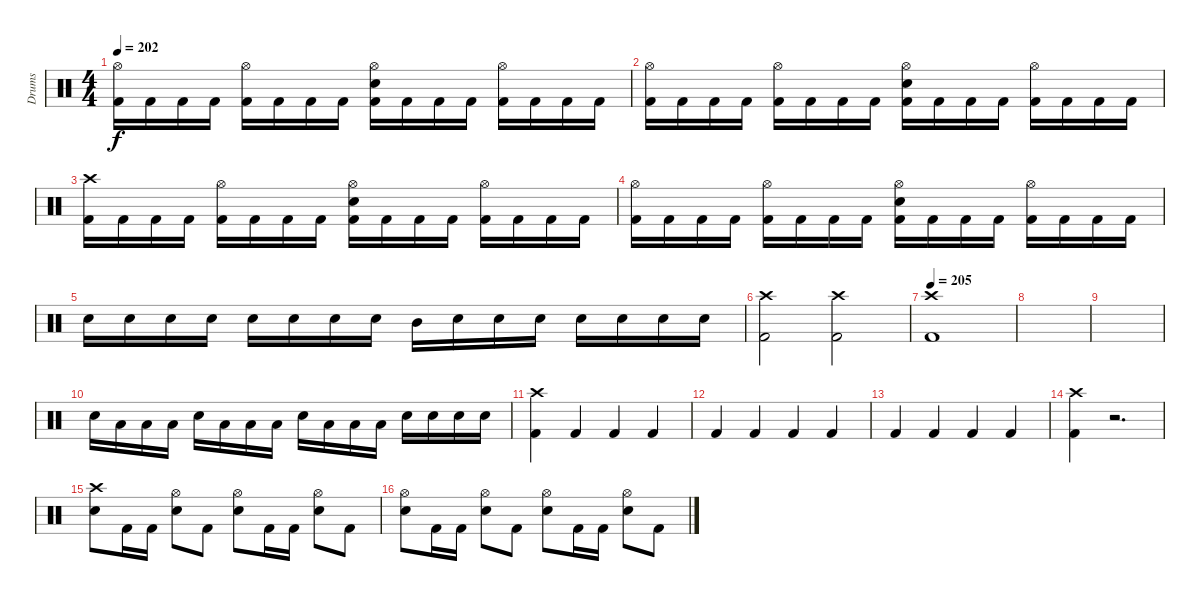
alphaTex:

\track ("Drums" "Drums") {instrument percussion}
\staff {score}
\articulation defaults
\ts (4 4)
\tempo 202
\clef neutral
\ks c
("Hi-Hat (open)" "Kick (hit) 2").16{dy f} "Kick (hit) 2".16 "Kick (hit) 2".16 "Kick (hit) 2".16 ("Hi-Hat (open)" "Kick (hit) 2").16 "Kick (hit) 2".16 "Kick (hit) 2".16 "Kick (hit) 2".16 ("Hi-Hat (open)" "Snare (hit) 2" "Kick (hit) 2").16 "Kick (hit) 2".16 "Kick (hit) 2".16 "Kick (hit) 2".16 ("Hi-Hat (open)" "Kick (hit) 2").16 "Kick (hit) 2".16 "Kick (hit) 2".16 "Kick (hit) 2".16 |
("Hi-Hat (open)" "Kick (hit) 2").16 "Kick (hit) 2".16 "Kick (hit) 2".16 "Kick (hit) 2".16 ("Hi-Hat (open)" "Kick (hit) 2").16 "Kick (hit) 2".16 "Kick (hit) 2".16 "Kick (hit) 2".16 ("Hi-Hat (open)" "Snare (hit) 2" "Kick (hit) 2").16 "Kick (hit) 2".16 "Kick (hit) 2".16 "Kick (hit) 2".16 ("Hi-Hat (open)" "Kick (hit) 2").16 "Kick (hit) 2".16 "Kick (hit) 2".16 "Kick (hit) 2".16 |
("Crash high (hit)" "Kick (hit) 2").16 "Kick (hit) 2".16 "Kick (hit) 2".16 "Kick (hit) 2".16 ("Hi-Hat (open)" "Kick (hit) 2").16 "Kick (hit) 2".16 "Kick (hit) 2".16 "Kick (hit) 2".16 ("Hi-Hat (open)" "Snare (hit) 2" "Kick (hit) 2").16 "Kick (hit) 2".16 "Kick (hit) 2".16 "Kick (hit) 2".16 ("Hi-Hat (open)" "Kick (hit) 2").16 "Kick (hit) 2".16 "Kick (hit) 2".16 "Kick (hit) 2".16 |
("Hi-Hat (open)" "Kick (hit) 2").16 "Kick (hit) 2".16 "Kick (hit) 2".16 "Kick (hit) 2".16 ("Hi-Hat (open)" "Kick (hit) 2").16 "Kick (hit) 2".16 "Kick (hit) 2".16 "Kick (hit) 2".16 ("Hi-Hat (open)" "Snare (hit) 2" "Kick (hit) 2").16 "Kick (hit) 2".16 "Kick (hit) 2".16 "Kick (hit) 2".16 ("Hi-Hat (open)" "Kick (hit) 2").16 "Kick (hit) 2".16 "Kick (hit) 2".16 "Kick (hit) 2".16 |
"Snare (hit) 2".16 "Snare (hit) 2".16 "Snare (hit) 2".16 "Snare (hit) 2".16 "Snare (hit) 2".16 "Snare (hit) 2".16 "Snare (hit) 2".16 "Snare (hit) 2".16 "Mid Tom (hit)".16 "Snare (hit) 2".16 "Snare (hit) 2".16 "Snare (hit) 2".16 "Snare (hit) 2".16 "Snare (hit) 2".16 "Snare (hit) 2".16 "Snare (hit) 2".16 |
("Crash high (hit)"{x} "Kick (hit) 2").2 ("Crash high (hit)"{x} "Kick (hit) 2").2 |
\tempo 205
("Crash high (hit)"{x} "Kick (hit) 2").1 |
|
|
"Snare (hit) 2".16 "Low Tom (hit)".16 "Low Tom (hit)".16 "Low Tom (hit)".16 "Snare (hit) 2".16 "Low Tom (hit)".16 "Low Tom (hit)".16 "Low Tom (hit)".16 "Snare (hit) 2".16 "Low Tom (hit)".16 "Low Tom (hit)".16 "Low Tom (hit)".16 "Snare (hit) 2".16 "Snare (hit) 2".16 "Snare (hit) 2".16 "Snare (hit) 2".16 |
("Crash high (hit)" "Kick (hit) 2").4 "Kick (hit) 2".4 "Kick (hit) 2".4 "Kick (hit) 2".4 |
"Kick (hit) 2".4 "Kick (hit) 2".4 "Kick (hit) 2".4 "Kick (hit) 2".4 |
"Kick (hit) 2".4 "Kick (hit) 2".4 "Kick (hit) 2".4 "Kick (hit) 2".4 |
("Crash high (hit)" "Kick (hit) 2").4 r.2{d} |
("Crash high (hit)" "Snare (hit) 2").8 "Kick (hit) 2".16 "Kick (hit) 2".16 ("Hi-Hat (open)" "Snare (hit) 2").8 "Kick (hit) 2".8 ("Hi-Hat (open)" "Snare (hit) 2").8 "Kick (hit) 2".16 "Kick (hit) 2".16 ("Hi-Hat (open)" "Snare (hit) 2").8 "Kick (hit) 2".8 |
("Hi-Hat (open)" "Snare (hit) 2").8 "Kick (hit) 2".16 "Kick (hit) 2".16 ("Hi-Hat (open)" "Snare (hit) 2").8 "Kick (hit) 2".8 ("Hi-Hat (open)" "Snare (hit) 2").8 "Kick (hit) 2".16 "Kick (hit) 2".16 ("Hi-Hat (open)" "Snare (hit) 2").8 "Kick (hit) 2".8
